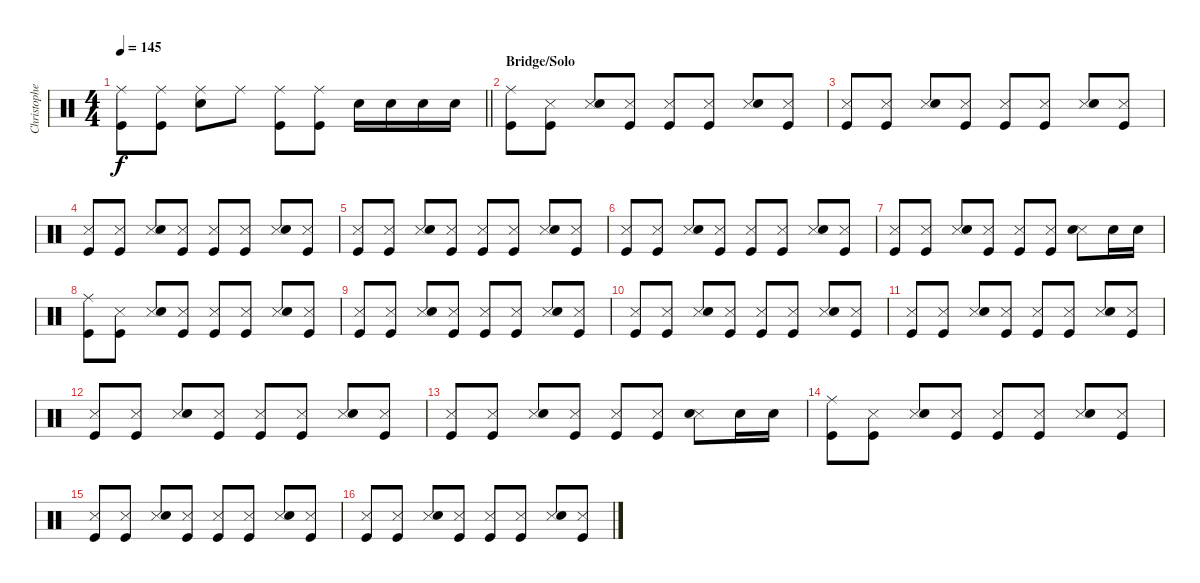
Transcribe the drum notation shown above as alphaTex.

\track ("Christopher - Drums" "Christophe") {instrument percussion}
\staff {score}
\articulation defaults
\ts (4 4)
\tempo 145
\clef neutral
\barLineRight lightlight
\ks c
("Ride (middle)" "Kick (hit)").8{dy f} ("Ride (middle)" "Kick (hit)").8 ("Ride (middle)" "Snare (hit) 2").8 "Ride (middle)".8 ("Ride (middle)" "Kick (hit)").8 ("Ride (middle)" "Kick (hit)").8 "Snare (hit) 2".16 "Snare (hit) 2".16 "Snare (hit) 2".16 "Snare (hit) 2".16 |
\section ("" "Bridge/Solo")
("Ride (middle)" "Kick (hit)").8 ("Snare (side stick) 3" "Kick (hit)").8 ("Snare (side stick) 3" "Snare (hit) 2").8 ("Snare (side stick) 3" "Kick (hit)").8 ("Snare (side stick) 3" "Kick (hit)").8 ("Snare (side stick) 3" "Kick (hit)").8 ("Snare (side stick) 3" "Snare (hit) 2").8 ("Snare (side stick) 3" "Kick (hit)").8 |
("Snare (side stick) 3" "Kick (hit)").8 ("Snare (side stick) 3" "Kick (hit)").8 ("Snare (side stick) 3" "Snare (hit) 2").8 ("Snare (side stick) 3" "Kick (hit)").8 ("Snare (side stick) 3" "Kick (hit)").8 ("Snare (side stick) 3" "Kick (hit)").8 ("Snare (side stick) 3" "Snare (hit) 2").8 ("Snare (side stick) 3" "Kick (hit)").8 |
("Snare (side stick) 3" "Kick (hit)").8 ("Snare (side stick) 3" "Kick (hit)").8 ("Snare (side stick) 3" "Snare (hit) 2").8 ("Snare (side stick) 3" "Kick (hit)").8 ("Snare (side stick) 3" "Kick (hit)").8 ("Snare (side stick) 3" "Kick (hit)").8 ("Snare (side stick) 3" "Snare (hit) 2").8 ("Snare (side stick) 3" "Kick (hit)").8 |
("Snare (side stick) 3" "Kick (hit)").8 ("Snare (side stick) 3" "Kick (hit)").8 ("Snare (side stick) 3" "Snare (hit) 2").8 ("Snare (side stick) 3" "Kick (hit)").8 ("Snare (side stick) 3" "Kick (hit)").8 ("Snare (side stick) 3" "Kick (hit)").8 ("Snare (side stick) 3" "Snare (hit) 2").8 ("Snare (side stick) 3" "Kick (hit)").8 |
("Snare (side stick) 3" "Kick (hit)").8 ("Snare (side stick) 3" "Kick (hit)").8 ("Snare (side stick) 3" "Snare (hit) 2").8 ("Snare (side stick) 3" "Kick (hit)").8 ("Snare (side stick) 3" "Kick (hit)").8 ("Snare (side stick) 3" "Kick (hit)").8 ("Snare (side stick) 3" "Snare (hit) 2").8 ("Snare (side stick) 3" "Kick (hit)").8 |
("Snare (side stick) 3" "Kick (hit)").8 ("Snare (side stick) 3" "Kick (hit)").8 ("Snare (side stick) 3" "Snare (hit) 2").8 ("Snare (side stick) 3" "Kick (hit)").8 ("Snare (side stick) 3" "Kick (hit)").8 ("Snare (side stick) 3" "Kick (hit)").8 ("Snare (side stick) 3" "Snare (hit) 2").8 "Snare (hit) 2".16 "Snare (hit) 2".16 |
("Ride (middle)" "Kick (hit)").8 ("Snare (side stick) 3" "Kick (hit)").8 ("Snare (side stick) 3" "Snare (hit) 2").8 ("Snare (side stick) 3" "Kick (hit)").8 ("Snare (side stick) 3" "Kick (hit)").8 ("Snare (side stick) 3" "Kick (hit)").8 ("Snare (side stick) 3" "Snare (hit) 2").8 ("Snare (side stick) 3" "Kick (hit)").8 |
("Snare (side stick) 3" "Kick (hit)").8 ("Snare (side stick) 3" "Kick (hit)").8 ("Snare (side stick) 3" "Snare (hit) 2").8 ("Snare (side stick) 3" "Kick (hit)").8 ("Snare (side stick) 3" "Kick (hit)").8 ("Snare (side stick) 3" "Kick (hit)").8 ("Snare (side stick) 3" "Snare (hit) 2").8 ("Snare (side stick) 3" "Kick (hit)").8 |
("Snare (side stick) 3" "Kick (hit)").8 ("Snare (side stick) 3" "Kick (hit)").8 ("Snare (side stick) 3" "Snare (hit) 2").8 ("Snare (side stick) 3" "Kick (hit)").8 ("Snare (side stick) 3" "Kick (hit)").8 ("Snare (side stick) 3" "Kick (hit)").8 ("Snare (side stick) 3" "Snare (hit) 2").8 ("Snare (side stick) 3" "Kick (hit)").8 |
("Snare (side stick) 3" "Kick (hit)").8 ("Snare (side stick) 3" "Kick (hit)").8 ("Snare (side stick) 3" "Snare (hit) 2").8 ("Snare (side stick) 3" "Kick (hit)").8 ("Snare (side stick) 3" "Kick (hit)").8 ("Snare (side stick) 3" "Kick (hit)").8 ("Snare (side stick) 3" "Snare (hit) 2").8 ("Snare (side stick) 3" "Kick (hit)").8 |
("Snare (side stick) 3" "Kick (hit)").8 ("Snare (side stick) 3" "Kick (hit)").8 ("Snare (side stick) 3" "Snare (hit) 2").8 ("Snare (side stick) 3" "Kick (hit)").8 ("Snare (side stick) 3" "Kick (hit)").8 ("Snare (side stick) 3" "Kick (hit)").8 ("Snare (side stick) 3" "Snare (hit) 2").8 ("Snare (side stick) 3" "Kick (hit)").8 |
("Snare (side stick) 3" "Kick (hit)").8 ("Snare (side stick) 3" "Kick (hit)").8 ("Snare (side stick) 3" "Snare (hit) 2").8 ("Snare (side stick) 3" "Kick (hit)").8 ("Snare (side stick) 3" "Kick (hit)").8 ("Snare (side stick) 3" "Kick (hit)").8 ("Snare (side stick) 3" "Snare (hit) 2").8 "Snare (hit) 2".16 "Snare (hit) 2".16 |
("Ride (middle)" "Kick (hit)").8 ("Snare (side stick) 3" "Kick (hit)").8 ("Snare (side stick) 3" "Snare (hit) 2").8 ("Snare (side stick) 3" "Kick (hit)").8 ("Snare (side stick) 3" "Kick (hit)").8 ("Snare (side stick) 3" "Kick (hit)").8 ("Snare (side stick) 3" "Snare (hit) 2").8 ("Snare (side stick) 3" "Kick (hit)").8 |
("Snare (side stick) 3" "Kick (hit)").8 ("Snare (side stick) 3" "Kick (hit)").8 ("Snare (side stick) 3" "Snare (hit) 2").8 ("Snare (side stick) 3" "Kick (hit)").8 ("Snare (side stick) 3" "Kick (hit)").8 ("Snare (side stick) 3" "Kick (hit)").8 ("Snare (side stick) 3" "Snare (hit) 2").8 ("Snare (side stick) 3" "Kick (hit)").8 |
("Snare (side stick) 3" "Kick (hit)").8 ("Snare (side stick) 3" "Kick (hit)").8 ("Snare (side stick) 3" "Snare (hit) 2").8 ("Snare (side stick) 3" "Kick (hit)").8 ("Snare (side stick) 3" "Kick (hit)").8 ("Snare (side stick) 3" "Kick (hit)").8 ("Snare (side stick) 3" "Snare (hit) 2").8 ("Snare (side stick) 3" "Kick (hit)").8
